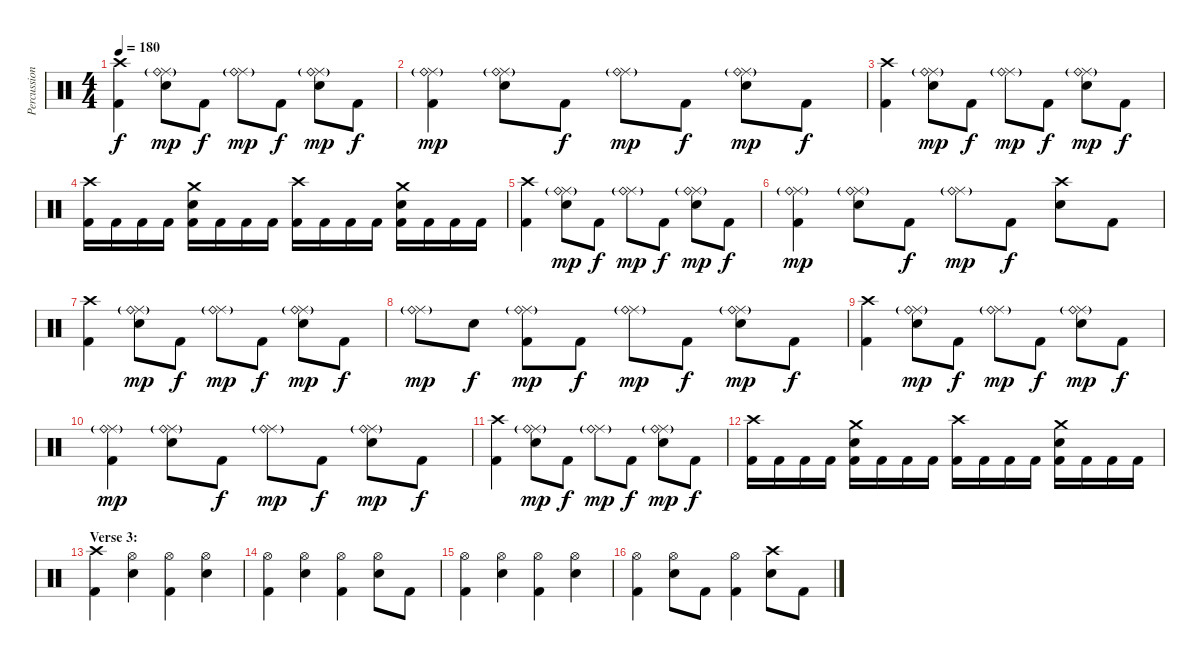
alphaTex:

\track ("Percussion" "Percussion") {instrument percussion}
\staff {score}
\articulation defaults
\ts (4 4)
\tempo 180
\clef neutral
\ks c
("Crash high (hit)" "Kick (hit) 2").4{dy f} ("Ride (middle)" "Ride (bell)"{g} "Electric Snare (hit)").8{dy mp} "Kick (hit) 2".8{dy f} ("Ride (middle)" "Ride (bell)"{g}).8{dy mp} "Kick (hit) 2".8{dy f} ("Ride (middle)" "Ride (bell)"{g} "Electric Snare (hit)").8{dy mp} "Kick (hit) 2".8{dy f} |
("Ride (middle)" "Ride (bell)"{g} "Kick (hit) 2").4{dy mp} ("Ride (middle)" "Ride (bell)"{g} "Electric Snare (hit)").8 "Kick (hit) 2".8{dy f} ("Ride (middle)" "Ride (bell)"{g}).8{dy mp} "Kick (hit) 2".8{dy f} ("Ride (middle)" "Ride (bell)"{g} "Electric Snare (hit)").8{dy mp} "Kick (hit) 2".8{dy f} |
("Crash high (hit)" "Kick (hit) 2").4 ("Ride (middle)" "Ride (bell)"{g} "Electric Snare (hit)").8{dy mp} "Kick (hit) 2".8{dy f} ("Ride (middle)" "Ride (bell)"{g}).8{dy mp} "Kick (hit) 2".8{dy f} ("Ride (middle)" "Ride (bell)"{g} "Electric Snare (hit)").8{dy mp} "Kick (hit) 2".8{dy f} |
("Crash high (hit)" "Kick (hit) 2").16 "Kick (hit) 2".16 "Kick (hit) 2".16 "Kick (hit) 2".16 ("Crash medium (hit)" "Electric Snare (hit)" "Kick (hit) 2").16 "Kick (hit) 2".16 "Kick (hit) 2".16 "Kick (hit) 2".16 ("Crash high (hit)" "Kick (hit) 2").16 "Kick (hit) 2".16 "Kick (hit) 2".16 "Kick (hit) 2".16 ("Crash medium (hit)" "Electric Snare (hit)" "Kick (hit) 2").16 "Kick (hit) 2".16 "Kick (hit) 2".16 "Kick (hit) 2".16 |
("Crash high (hit)" "Kick (hit) 2").4 ("Ride (middle)" "Ride (bell)"{g} "Electric Snare (hit)").8{dy mp} "Kick (hit) 2".8{dy f} ("Ride (middle)" "Ride (bell)"{g}).8{dy mp} "Kick (hit) 2".8{dy f} ("Ride (middle)" "Ride (bell)"{g} "Electric Snare (hit)").8{dy mp} "Kick (hit) 2".8{dy f} |
("Ride (middle)" "Ride (bell)"{g} "Kick (hit) 2").4{dy mp} ("Ride (middle)" "Ride (bell)"{g} "Electric Snare (hit)").8 "Kick (hit) 2".8{dy f} ("Ride (middle)" "Ride (bell)"{g}).8{dy mp} "Kick (hit) 2".8{dy f} ("Crash high (hit)" "Electric Snare (hit)").8 "Kick (hit) 2".8 |
("Crash high (hit)" "Kick (hit) 2").4 ("Ride (middle)" "Ride (bell)"{g} "Electric Snare (hit)").8{dy mp} "Kick (hit) 2".8{dy f} ("Ride (middle)" "Ride (bell)"{g}).8{dy mp} "Kick (hit) 2".8{dy f} ("Ride (middle)" "Ride (bell)"{g} "Electric Snare (hit)").8{dy mp} "Kick (hit) 2".8{dy f} |
("Ride (middle)" "Ride (bell)"{g}).8{dy mp} "Electric Snare (hit)".8{dy f} ("Ride (middle)" "Ride (bell)"{g} "Kick (hit) 2").8{dy mp} "Kick (hit) 2".8{dy f} ("Ride (middle)" "Ride (bell)"{g}).8{dy mp} "Kick (hit) 2".8{dy f} ("Ride (middle)" "Ride (bell)"{g} "Electric Snare (hit)").8{dy mp} "Kick (hit) 2".8{dy f} |
("Crash high (hit)" "Kick (hit) 2").4 ("Ride (middle)" "Ride (bell)"{g} "Electric Snare (hit)").8{dy mp} "Kick (hit) 2".8{dy f} ("Ride (middle)" "Ride (bell)"{g}).8{dy mp} "Kick (hit) 2".8{dy f} ("Ride (middle)" "Ride (bell)"{g} "Electric Snare (hit)").8{dy mp} "Kick (hit) 2".8{dy f} |
("Ride (middle)" "Ride (bell)"{g} "Kick (hit) 2").4{dy mp} ("Ride (middle)" "Ride (bell)"{g} "Electric Snare (hit)").8 "Kick (hit) 2".8{dy f} ("Ride (middle)" "Ride (bell)"{g}).8{dy mp} "Kick (hit) 2".8{dy f} ("Ride (middle)" "Ride (bell)"{g} "Electric Snare (hit)").8{dy mp} "Kick (hit) 2".8{dy f} |
("Crash high (hit)" "Kick (hit) 2").4 ("Ride (middle)" "Ride (bell)"{g} "Electric Snare (hit)").8{dy mp} "Kick (hit) 2".8{dy f} ("Ride (middle)" "Ride (bell)"{g}).8{dy mp} "Kick (hit) 2".8{dy f} ("Ride (middle)" "Ride (bell)"{g} "Electric Snare (hit)").8{dy mp} "Kick (hit) 2".8{dy f} |
("Crash high (hit)" "Kick (hit) 2").16 "Kick (hit) 2".16 "Kick (hit) 2".16 "Kick (hit) 2".16 ("Crash medium (hit)" "Electric Snare (hit)" "Kick (hit) 2").16 "Kick (hit) 2".16 "Kick (hit) 2".16 "Kick (hit) 2".16 ("Crash high (hit)" "Kick (hit) 2").16 "Kick (hit) 2".16 "Kick (hit) 2".16 "Kick (hit) 2".16 ("Crash medium (hit)" "Electric Snare (hit)" "Kick (hit) 2").16 "Kick (hit) 2".16 "Kick (hit) 2".16 "Kick (hit) 2".16 |
\section ("" "Verse 3:")
("Crash high (hit)" "Kick (hit) 2").4 ("Hi-Hat (open)" "Electric Snare (hit)").4 ("Hi-Hat (open)" "Kick (hit) 2").4 ("Hi-Hat (open)" "Electric Snare (hit)").4 |
("Hi-Hat (open)" "Kick (hit) 2").4 ("Hi-Hat (open)" "Electric Snare (hit)").4 ("Hi-Hat (open)" "Kick (hit) 2").4 ("Hi-Hat (open)" "Electric Snare (hit)").8 "Kick (hit) 2".8 |
("Hi-Hat (open)" "Kick (hit) 2").4 ("Hi-Hat (open)" "Electric Snare (hit)").4 ("Hi-Hat (open)" "Kick (hit) 2").4 ("Hi-Hat (open)" "Electric Snare (hit)").4 |
("Hi-Hat (open)" "Kick (hit) 2").4 ("Hi-Hat (open)" "Electric Snare (hit)").8 "Kick (hit) 2".8 ("Hi-Hat (open)" "Kick (hit) 2").4 ("Crash high (hit)" "Electric Snare (hit)").8 "Kick (hit) 2".8
